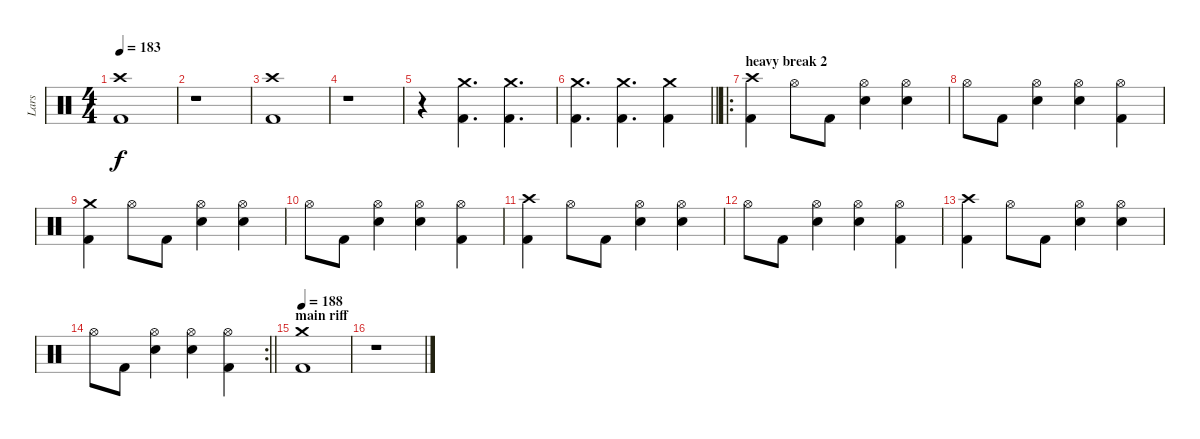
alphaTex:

\track ("Lars" "Lars") {instrument percussion}
\staff {score}
\articulation defaults
\ts (4 4)
\tempo 183
\clef neutral
\ks c
("Crash high (hit)" "Kick (hit) 2").1{dy f} |
r.1 |
("Crash high (hit)" "Kick (hit) 2").1 |
r.1 |
r.4 ("Crash medium (hit)" "Kick (hit) 2").4{d} ("Crash medium (hit)" "Kick (hit) 2").4{d} |
\barLineRight lightlight
("Crash medium (hit)" "Kick (hit) 2").4{d} ("Crash medium (hit)" "Kick (hit) 2").4{d} ("Crash medium (hit)" "Kick (hit) 2").4 |
\ro
\section ("" "heavy break 2")
("Crash high (hit)" "Kick (hit) 2").4 "Hi-Hat (open)".8 "Kick (hit) 2".8 ("Hi-Hat (open)" "Snare (hit) 2").4 ("Hi-Hat (open)" "Snare (hit) 2").4 |
"Hi-Hat (open)".8 "Kick (hit) 2".8 ("Hi-Hat (open)" "Snare (hit) 2").4 ("Hi-Hat (open)" "Snare (hit) 2").4 ("Hi-Hat (open)" "Kick (hit) 2").4 |
("Crash medium (hit)" "Kick (hit) 2").4 "Hi-Hat (open)".8 "Kick (hit) 2".8 ("Hi-Hat (open)" "Snare (hit) 2").4 ("Hi-Hat (open)" "Snare (hit) 2").4 |
"Hi-Hat (open)".8 "Kick (hit) 2".8 ("Hi-Hat (open)" "Snare (hit) 2").4 ("Hi-Hat (open)" "Snare (hit) 2").4 ("Hi-Hat (open)" "Kick (hit) 2").4 |
("Crash high (hit)" "Kick (hit) 2").4 "Hi-Hat (open)".8 "Kick (hit) 2".8 ("Hi-Hat (open)" "Snare (hit) 2").4 ("Hi-Hat (open)" "Snare (hit) 2").4 |
"Hi-Hat (open)".8 "Kick (hit) 2".8 ("Hi-Hat (open)" "Snare (hit) 2").4 ("Hi-Hat (open)" "Snare (hit) 2").4 ("Hi-Hat (open)" "Kick (hit) 2").4 |
("Crash high (hit)" "Kick (hit) 2").4 "Hi-Hat (open)".8 "Kick (hit) 2".8 ("Hi-Hat (open)" "Snare (hit) 2").4 ("Hi-Hat (open)" "Snare (hit) 2").4 |
\rc 2
\barLineRight lightlight "Hi-Hat (open)".8 "Kick (hit) 2".8
("Hi-Hat (open)" "Snare (hit) 2").4 ("Hi-Hat (open)" "Snare (hit) 2").4 ("Hi-Hat (open)" "Kick (hit) 2").4 |
\section ("" "main riff")
\tempo 188
("Crash medium (hit)" "Kick (hit) 2").1 |
r.1
